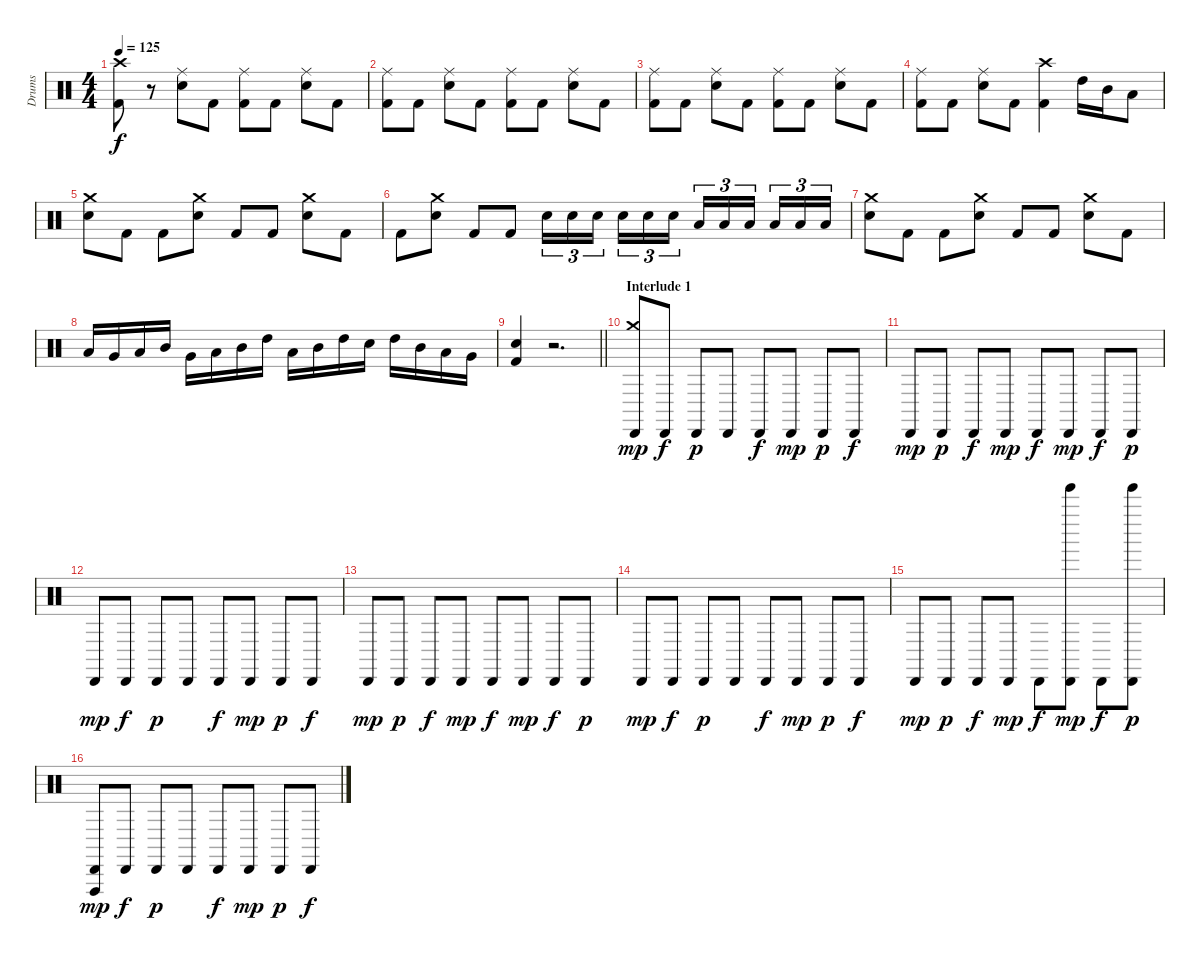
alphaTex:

\track ("Drums" "Drums") {instrument percussion}
\staff {score}
\articulation defaults
\ts (4 4)
\tempo 125
\clef neutral
\ks c
("Crash high (hit)" "Kick (hit) 2").8{dy f} r.8 ("Ride (middle)" "Electric Snare (hit)").8 "Kick (hit) 2".8 ("Ride (middle)" "Kick (hit) 2").8 "Kick (hit) 2".8 ("Ride (middle)" "Electric Snare (hit)").8 "Kick (hit) 2".8 |
("Ride (middle)" "Kick (hit) 2").8 "Kick (hit) 2".8 ("Ride (middle)" "Electric Snare (hit)").8 "Kick (hit) 2".8 ("Ride (middle)" "Kick (hit) 2").8 "Kick (hit) 2".8 ("Ride (middle)" "Electric Snare (hit)").8 "Kick (hit) 2".8 |
("Ride (middle)" "Kick (hit) 2").8 "Kick (hit) 2".8 ("Ride (middle)" "Electric Snare (hit)").8 "Kick (hit) 2".8 ("Ride (middle)" "Kick (hit) 2").8 "Kick (hit) 2".8 ("Ride (middle)" "Electric Snare (hit)").8 "Kick (hit) 2".8 |
("Ride (middle)" "Kick (hit) 2").8 "Kick (hit) 2".8 ("Ride (middle)" "Electric Snare (hit)").8 "Kick (hit) 2".8 ("Crash high (hit)" "Kick (hit) 2").4 "High Tom (hit)".16 "Mid Tom (hit)".16 "Low Tom (hit)".8 |
("Crash medium (hit)" "Electric Snare (hit)").8 "Kick (hit) 2".8 "Kick (hit) 2".8 ("Crash medium (hit)" "Electric Snare (hit)").8 "Kick (hit) 2".8 "Kick (hit) 2".8 ("Crash medium (hit)" "Electric Snare (hit)").8 "Kick (hit) 2".8 |
"Kick (hit) 2".8 ("Crash medium (hit)" "Electric Snare (hit)").8 "Kick (hit) 2".8 "Kick (hit) 2".8 "Electric Snare (hit)".16{tu (3 2)} "Electric Snare (hit)".16{tu (3 2)} "Electric Snare (hit)".16{tu (3 2) beam splitsecondary} "Electric Snare (hit)".16{tu (3 2)} "Electric Snare (hit)".16{tu (3 2)} "Electric Snare (hit)".16{tu (3 2)} "Low Tom (hit)".16{tu (3 2)} "Low Tom (hit)".16{tu (3 2)} "Low Tom (hit)".16{tu (3 2) beam splitsecondary} "Low Tom (hit)".16{tu (3 2)} "Low Tom (hit)".16{tu (3 2)} "Low Tom (hit)".16{tu (3 2)} |
("Crash medium (hit)" "Electric Snare (hit)").8 "Kick (hit) 2".8 "Kick (hit) 2".8 ("Crash medium (hit)" "Electric Snare (hit)").8 "Kick (hit) 2".8 "Kick (hit) 2".8 ("Crash medium (hit)" "Electric Snare (hit)").8 "Kick (hit) 2".8 |
"Low Floor Tom (hit)".16 "Very Low Tom (hit)".16 "Low Tom (hit)".16 "Mid Tom (hit)".16 "Very Low Tom (hit)".16 "Low Tom (hit)".16 "Mid Tom (hit)".16 "High Tom (hit)".16 "Low Tom (hit)".16 "Mid Tom (hit)".16 "High Tom (hit)".16 "Electric Snare (hit)".16 "High Tom (hit)".16 "Mid Tom (hit)".16 "Low Tom (hit)".16 "Very Low Tom (hit)".16 |
\barLineRight lightlight
("Electric Snare (hit)" "Kick (hit) 2").4 r.2{d} |
\section ("" "Interlude 1")
("Crash medium (hit)" "Cabasa (hit)").8{dy mp} "Cabasa (hit)".8{dy f} "Cabasa (hit)".8{dy p} "Cabasa (hit)".8 "Cabasa (hit)".8{dy f} "Cabasa (hit)".8{dy mp} "Cabasa (hit)".8{dy p} "Cabasa (hit)".8{dy f} |
"Cabasa (hit)".8{dy mp} "Cabasa (hit)".8{dy p} "Cabasa (hit)".8{dy f} "Cabasa (hit)".8{dy mp} "Cabasa (hit)".8{dy f} "Cabasa (hit)".8{dy mp} "Cabasa (hit)".8{dy f} "Cabasa (hit)".8{dy p} |
"Cabasa (hit)".8{dy mp} "Cabasa (hit)".8{dy f} "Cabasa (hit)".8{dy p} "Cabasa (hit)".8 "Cabasa (hit)".8{dy f} "Cabasa (hit)".8{dy mp} "Cabasa (hit)".8{dy p} "Cabasa (hit)".8{dy f} |
"Cabasa (hit)".8{dy mp} "Cabasa (hit)".8{dy p} "Cabasa (hit)".8{dy f} "Cabasa (hit)".8{dy mp} "Cabasa (hit)".8{dy f} "Cabasa (hit)".8{dy mp} "Cabasa (hit)".8{dy f} "Cabasa (hit)".8{dy p} |
"Cabasa (hit)".8{dy mp} "Cabasa (hit)".8{dy f} "Cabasa (hit)".8{dy p} "Cabasa (hit)".8 "Cabasa (hit)".8{dy f} "Cabasa (hit)".8{dy mp} "Cabasa (hit)".8{dy p} "Cabasa (hit)".8{dy f} |
"Cabasa (hit)".8{dy mp} "Cabasa (hit)".8{dy p} "Cabasa (hit)".8{dy f} "Cabasa (hit)".8{dy mp} "Cabasa (hit)".8{dy f} ("Tinkle Bell (hit)" "Cabasa (hit)").8{dy mp} "Cabasa (hit)".8{dy f} ("Tinkle Bell (hit)" "Cabasa (hit)").8{dy p} |
("Cabasa (hit)" "Vibraslap (hit)").8{dy mp} "Cabasa (hit)".8{dy f} "Cabasa (hit)".8{dy p} "Cabasa (hit)".8 "Cabasa (hit)".8{dy f} "Cabasa (hit)".8{dy mp} "Cabasa (hit)".8{dy p} "Cabasa (hit)".8{dy f}
